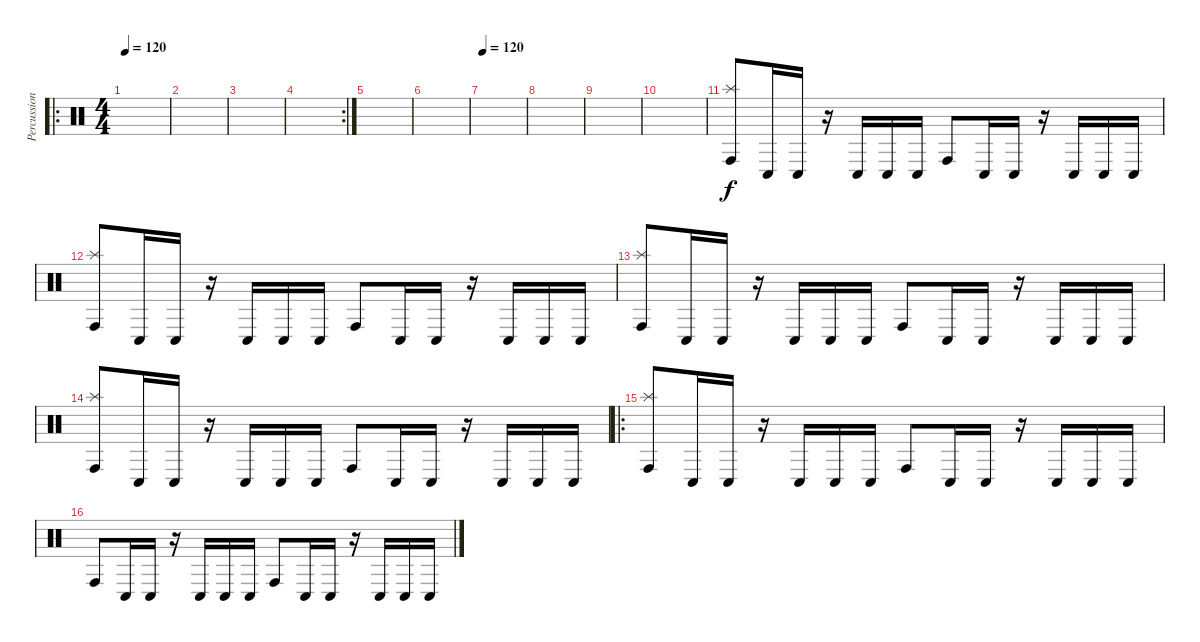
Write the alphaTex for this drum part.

\track ("Percussion" "Percussion") {instrument percussion}
\staff {score}
\articulation defaults
\ro
\ts (4 4)
\tempo 120
\tempo 100
\tempo 120
\clef neutral
\ks c
|
|
|
\rc 2
|
|
|
\tempo 120
|
|
|
|
("Splash (hit)" "Conga high (hit)").8 "Conga low (hit)".16 "Conga low (hit)".16 r.16 "Conga low (hit)".16 "Conga low (hit)".16 "Conga low (hit)".16 "Conga high (hit)".8 "Conga low (hit)".16 "Conga low (hit)".16 r.16 "Conga low (hit)".16 "Conga low (hit)".16 "Conga low (hit)".16 |
("Splash (hit)" "Conga high (hit)").8 "Conga low (hit)".16 "Conga low (hit)".16 r.16 "Conga low (hit)".16 "Conga low (hit)".16 "Conga low (hit)".16 "Conga high (hit)".8 "Conga low (hit)".16 "Conga low (hit)".16 r.16 "Conga low (hit)".16 "Conga low (hit)".16 "Conga low (hit)".16 |
("Splash (hit)" "Conga high (hit)").8 "Conga low (hit)".16 "Conga low (hit)".16 r.16 "Conga low (hit)".16 "Conga low (hit)".16 "Conga low (hit)".16 "Conga high (hit)".8 "Conga low (hit)".16 "Conga low (hit)".16 r.16 "Conga low (hit)".16 "Conga low (hit)".16 "Conga low (hit)".16 |
("Splash (hit)" "Conga high (hit)").8 "Conga low (hit)".16 "Conga low (hit)".16 r.16 "Conga low (hit)".16 "Conga low (hit)".16 "Conga low (hit)".16 "Conga high (hit)".8 "Conga low (hit)".16 "Conga low (hit)".16 r.16 "Conga low (hit)".16 "Conga low (hit)".16 "Conga low (hit)".16 |
\ro
("Splash (hit)" "Conga high (hit)").8 "Conga low (hit)".16 "Conga low (hit)".16 r.16 "Conga low (hit)".16 "Conga low (hit)".16 "Conga low (hit)".16 "Conga high (hit)".8 "Conga low (hit)".16 "Conga low (hit)".16 r.16 "Conga low (hit)".16 "Conga low (hit)".16 "Conga low (hit)".16 |
"Conga high (hit)".8 "Conga low (hit)".16 "Conga low (hit)".16 r.16 "Conga low (hit)".16 "Conga low (hit)".16 "Conga low (hit)".16 "Conga high (hit)".8 "Conga low (hit)".16 "Conga low (hit)".16 r.16 "Conga low (hit)".16 "Conga low (hit)".16 "Conga low (hit)".16
